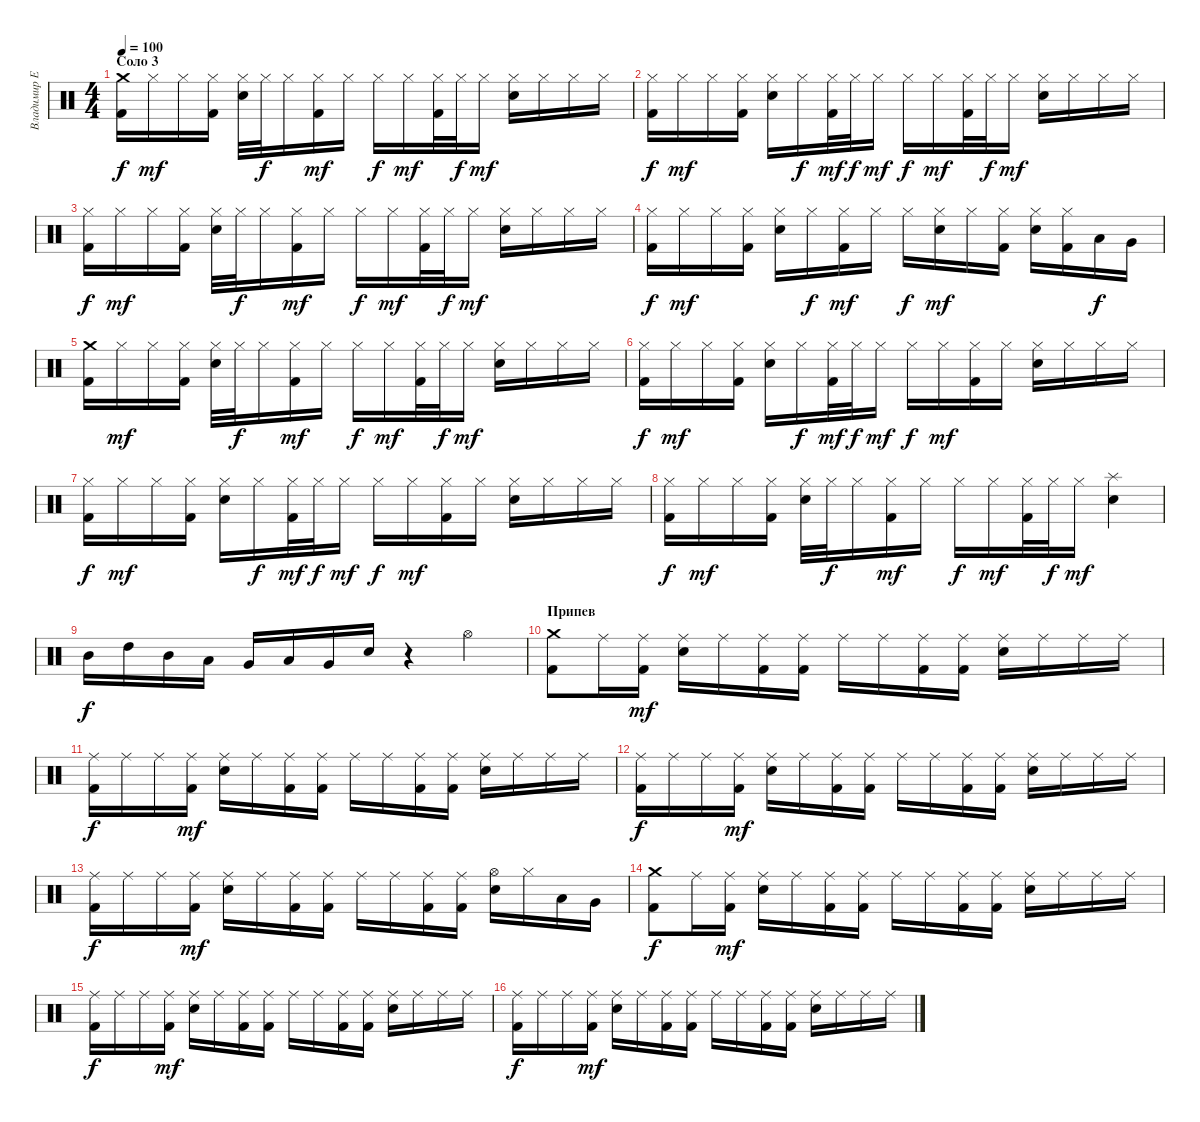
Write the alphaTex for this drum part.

\track ("Владимир Ермаков" "Владимир Е") {instrument percussion}
\staff {score}
\articulation defaults
\ts (4 4)
\section ("" "Соло 3")
\tempo 100
\clef neutral
\ks c
("Kick (hit) 2" "Crash medium (hit)").16{dy f} "Hi-Hat (closed)".16{dy mf} "Hi-Hat (closed)".16 ("Kick (hit) 2" "Hi-Hat (closed)").16 ("Electric Snare (hit)" "Hi-Hat (closed)").32 "Hi-Hat (closed)".32{dy f} "Hi-Hat (closed)".16 ("Kick (hit) 2" "Hi-Hat (closed)").16{dy mf} "Hi-Hat (closed)".16 "Hi-Hat (closed)".16{dy f} "Hi-Hat (closed)".16{dy mf} ("Kick (hit) 2" "Hi-Hat (closed)").32 "Hi-Hat (closed)".32{dy f} "Hi-Hat (closed)".16{dy mf} ("Electric Snare (hit)" "Hi-Hat (closed)").16 "Hi-Hat (closed)".16 "Hi-Hat (closed)".16 "Hi-Hat (closed)".16 |
("Kick (hit) 2" "Hi-Hat (closed)").16{dy f} "Hi-Hat (closed)".16{dy mf} "Hi-Hat (closed)".16 ("Kick (hit) 2" "Hi-Hat (closed)").16 ("Electric Snare (hit)" "Hi-Hat (closed)").16 "Hi-Hat (closed)".16{dy f} ("Kick (hit) 2" "Hi-Hat (closed)").32{dy mf} "Hi-Hat (closed)".32{dy f} "Hi-Hat (closed)".16{dy mf} "Hi-Hat (closed)".16{dy f} "Hi-Hat (closed)".16{dy mf} ("Kick (hit) 2" "Hi-Hat (closed)").32 "Hi-Hat (closed)".32{dy f} "Hi-Hat (closed)".16{dy mf} ("Electric Snare (hit)" "Hi-Hat (closed)").16 "Hi-Hat (closed)".16 "Hi-Hat (closed)".16 "Hi-Hat (closed)".16 |
("Kick (hit) 2" "Hi-Hat (closed)").16{dy f} "Hi-Hat (closed)".16{dy mf} "Hi-Hat (closed)".16 ("Kick (hit) 2" "Hi-Hat (closed)").16 ("Electric Snare (hit)" "Hi-Hat (closed)").32 "Hi-Hat (closed)".32{dy f} "Hi-Hat (closed)".16 ("Kick (hit) 2" "Hi-Hat (closed)").16{dy mf} "Hi-Hat (closed)".16 "Hi-Hat (closed)".16{dy f} "Hi-Hat (closed)".16{dy mf} ("Kick (hit) 2" "Hi-Hat (closed)").32 "Hi-Hat (closed)".32{dy f} "Hi-Hat (closed)".16{dy mf} ("Electric Snare (hit)" "Hi-Hat (closed)").16 "Hi-Hat (closed)".16 "Hi-Hat (closed)".16 "Hi-Hat (closed)".16 |
("Kick (hit) 2" "Hi-Hat (closed)").16{dy f} "Hi-Hat (closed)".16{dy mf} "Hi-Hat (closed)".16 ("Kick (hit) 2" "Hi-Hat (closed)").16 ("Electric Snare (hit)" "Hi-Hat (closed)").16 "Hi-Hat (closed)".16{dy f} ("Kick (hit) 2" "Hi-Hat (closed)").16{dy mf} "Hi-Hat (closed)".16 "Hi-Hat (closed)".16{dy f} ("Electric Snare (hit)" "Hi-Hat (closed)").16{dy mf} "Hi-Hat (closed)".16 ("Kick (hit) 2" "Hi-Hat (closed)").16 ("Electric Snare (hit)" "Hi-Hat (closed)").16 ("Kick (hit) 2" "Hi-Hat (closed)").16 "Low Tom (hit)".16{dy f} "Very Low Tom (hit)".16 |
("Kick (hit) 2" "Crash medium (hit)").16 "Hi-Hat (closed)".16{dy mf} "Hi-Hat (closed)".16 ("Kick (hit) 2" "Hi-Hat (closed)").16 ("Electric Snare (hit)" "Hi-Hat (closed)").32 "Hi-Hat (closed)".32{dy f} "Hi-Hat (closed)".16 ("Kick (hit) 2" "Hi-Hat (closed)").16{dy mf} "Hi-Hat (closed)".16 "Hi-Hat (closed)".16{dy f} "Hi-Hat (closed)".16{dy mf} ("Kick (hit) 2" "Hi-Hat (closed)").32 "Hi-Hat (closed)".32{dy f} "Hi-Hat (closed)".16{dy mf} ("Electric Snare (hit)" "Hi-Hat (closed)").16 "Hi-Hat (closed)".16 "Hi-Hat (closed)".16 "Hi-Hat (closed)".16 |
("Kick (hit) 2" "Hi-Hat (closed)").16{dy f} "Hi-Hat (closed)".16{dy mf} "Hi-Hat (closed)".16 ("Kick (hit) 2" "Hi-Hat (closed)").16 ("Electric Snare (hit)" "Hi-Hat (closed)").16 "Hi-Hat (closed)".16{dy f} ("Kick (hit) 2" "Hi-Hat (closed)").32{dy mf} "Hi-Hat (closed)".32{dy f} "Hi-Hat (closed)".16{dy mf} "Hi-Hat (closed)".16{dy f} "Hi-Hat (closed)".16{dy mf} ("Kick (hit) 2" "Hi-Hat (closed)").16 "Hi-Hat (closed)".16 ("Electric Snare (hit)" "Hi-Hat (closed)").16 "Hi-Hat (closed)".16 "Hi-Hat (closed)".16 "Hi-Hat (closed)".16 |
("Kick (hit) 2" "Hi-Hat (closed)").16{dy f} "Hi-Hat (closed)".16{dy mf} "Hi-Hat (closed)".16 ("Kick (hit) 2" "Hi-Hat (closed)").16 ("Electric Snare (hit)" "Hi-Hat (closed)").16 "Hi-Hat (closed)".16{dy f} ("Kick (hit) 2" "Hi-Hat (closed)").32{dy mf} "Hi-Hat (closed)".32{dy f} "Hi-Hat (closed)".16{dy mf} "Hi-Hat (closed)".16{dy f} "Hi-Hat (closed)".16{dy mf} ("Kick (hit) 2" "Hi-Hat (closed)").16 "Hi-Hat (closed)".16 ("Electric Snare (hit)" "Hi-Hat (closed)").16 "Hi-Hat (closed)".16 "Hi-Hat (closed)".16 "Hi-Hat (closed)".16 |
("Kick (hit) 2" "Hi-Hat (closed)").16{dy f} "Hi-Hat (closed)".16{dy mf} "Hi-Hat (closed)".16 ("Kick (hit) 2" "Hi-Hat (closed)").16 ("Electric Snare (hit)" "Hi-Hat (closed)").32 "Hi-Hat (closed)".32{dy f} "Hi-Hat (closed)".16 ("Kick (hit) 2" "Hi-Hat (closed)").16{dy mf} "Hi-Hat (closed)".16 "Hi-Hat (closed)".16{dy f} "Hi-Hat (closed)".16{dy mf} ("Kick (hit) 2" "Hi-Hat (closed)").32 "Hi-Hat (closed)".32{dy f} "Hi-Hat (closed)".16{dy mf} ("Electric Snare (hit)" "Splash (hit)").4 |
"Mid Tom (hit)".16{dy f} "High Tom (hit)".16 "Mid Tom (hit)".16 "Low Tom (hit)".16 "Very Low Tom (hit)".16 "Low Tom (hit)".16 "Very Low Tom (hit)".16 "Electric Snare (hit)".16 r.4 "Hi-Hat (open)".4 |
\section ("" "Припев")
("Crash medium (hit)" "Kick (hit) 2").8 "Ride (middle)".16 ("Ride (middle)" "Kick (hit) 2").16{dy mf} ("Ride (middle)" "Electric Snare (hit)").16 "Ride (middle)".16 ("Ride (middle)" "Kick (hit) 2").16 ("Ride (middle)" "Kick (hit) 2").16 "Ride (middle)".16 "Ride (middle)".16 ("Ride (middle)" "Kick (hit) 2").16 ("Ride (middle)" "Kick (hit) 2").16 ("Ride (middle)" "Electric Snare (hit)").16 "Ride (middle)".16 "Ride (middle)".16 "Ride (middle)".16 |
("Ride (middle)" "Kick (hit) 2").16{dy f} "Ride (middle)".16 "Ride (middle)".16 ("Ride (middle)" "Kick (hit) 2").16{dy mf} ("Ride (middle)" "Electric Snare (hit)").16 "Ride (middle)".16 ("Ride (middle)" "Kick (hit) 2").16 ("Ride (middle)" "Kick (hit) 2").16 "Ride (middle)".16 "Ride (middle)".16 ("Ride (middle)" "Kick (hit) 2").16 ("Ride (middle)" "Kick (hit) 2").16 ("Ride (middle)" "Electric Snare (hit)").16 "Ride (middle)".16 "Ride (middle)".16 "Ride (middle)".16 |
("Ride (middle)" "Kick (hit) 2").16{dy f} "Ride (middle)".16 "Ride (middle)".16 ("Ride (middle)" "Kick (hit) 2").16{dy mf} ("Ride (middle)" "Electric Snare (hit)").16 "Ride (middle)".16 ("Ride (middle)" "Kick (hit) 2").16 ("Ride (middle)" "Kick (hit) 2").16 "Ride (middle)".16 "Ride (middle)".16 ("Ride (middle)" "Kick (hit) 2").16 ("Ride (middle)" "Kick (hit) 2").16 ("Ride (middle)" "Electric Snare (hit)").16 "Ride (middle)".16 "Ride (middle)".16 "Ride (middle)".16 |
("Ride (middle)" "Kick (hit) 2").16{dy f} "Ride (middle)".16 "Ride (middle)".16 ("Ride (middle)" "Kick (hit) 2").16{dy mf} ("Ride (middle)" "Electric Snare (hit)").16 "Ride (middle)".16 ("Ride (middle)" "Kick (hit) 2").16 ("Ride (middle)" "Kick (hit) 2").16 "Ride (middle)".16 "Ride (middle)".16 ("Ride (middle)" "Kick (hit) 2").16 ("Ride (middle)" "Kick (hit) 2").16 ("Hi-Hat (open)" "Electric Snare (hit)").16 "Hi-Hat (closed)".16 "Low Tom (hit)".16 "Very Low Tom (hit)".16 |
("Crash medium (hit)" "Kick (hit) 2").8{dy f} "Ride (middle)".16 ("Ride (middle)" "Kick (hit) 2").16{dy mf} ("Ride (middle)" "Electric Snare (hit)").16 "Ride (middle)".16 ("Ride (middle)" "Kick (hit) 2").16 ("Ride (middle)" "Kick (hit) 2").16 "Ride (middle)".16 "Ride (middle)".16 ("Ride (middle)" "Kick (hit) 2").16 ("Ride (middle)" "Kick (hit) 2").16 ("Ride (middle)" "Electric Snare (hit)").16 "Ride (middle)".16 "Ride (middle)".16 "Ride (middle)".16 |
("Ride (middle)" "Kick (hit) 2").16{dy f} "Ride (middle)".16 "Ride (middle)".16 ("Ride (middle)" "Kick (hit) 2").16{dy mf} ("Ride (middle)" "Electric Snare (hit)").16 "Ride (middle)".16 ("Ride (middle)" "Kick (hit) 2").16 ("Ride (middle)" "Kick (hit) 2").16 "Ride (middle)".16 "Ride (middle)".16 ("Ride (middle)" "Kick (hit) 2").16 ("Ride (middle)" "Kick (hit) 2").16 ("Ride (middle)" "Electric Snare (hit)").16 "Ride (middle)".16 "Ride (middle)".16 "Ride (middle)".16 |
("Ride (middle)" "Kick (hit) 2").16{dy f} "Ride (middle)".16 "Ride (middle)".16 ("Ride (middle)" "Kick (hit) 2").16{dy mf} ("Ride (middle)" "Electric Snare (hit)").16 "Ride (middle)".16 ("Ride (middle)" "Kick (hit) 2").16 ("Ride (middle)" "Kick (hit) 2").16 "Ride (middle)".16 "Ride (middle)".16 ("Ride (middle)" "Kick (hit) 2").16 ("Ride (middle)" "Kick (hit) 2").16 ("Ride (middle)" "Electric Snare (hit)").16 "Ride (middle)".16 "Ride (middle)".16 "Ride (middle)".16
